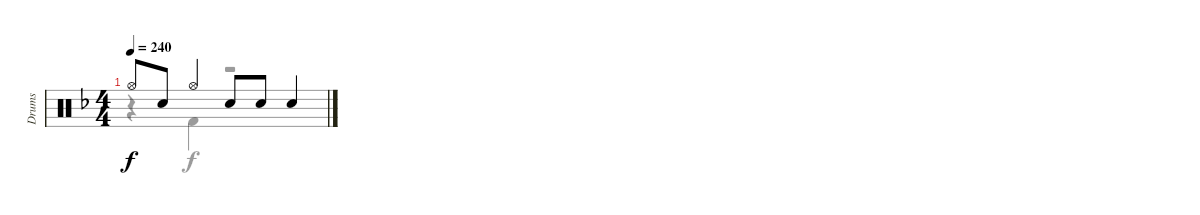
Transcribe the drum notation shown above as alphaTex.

\track ("Drums" "Drums") {instrument percussion}
\staff {score}
\articulation defaults
\voice
\ts (4 4)
\tempo 240
\clef neutral
\ks f "Hi-Hat (open)".8{dy f} "Snare (hit) 2".8 "Hi-Hat (open)".4 "Snare (hit) 2".8 "Snare (hit) 2".8 "Snare (hit) 2".4
\voice
\clef neutral
\ks f
r.4{dy f} "Kick (hit) 2".4 r.2
